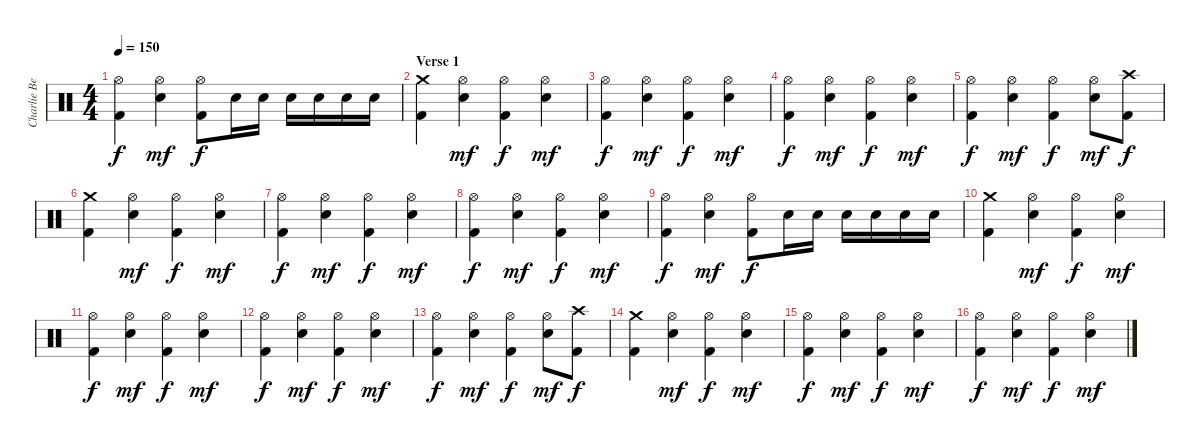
\track ("Charlie Benante" "Charlie Be") {instrument percussion}
\staff {score}
\articulation defaults
\ts (4 4)
\tempo 150
\clef neutral
\ks c
("Kick (hit) 2" "Hi-Hat (open)").4{dy f} ("Hi-Hat (open)" "Snare (hit) 2").4{dy mf} ("Kick (hit) 2" "Hi-Hat (open)").8{dy f} "Snare (hit) 2".16 "Snare (hit) 2".16 "Snare (hit) 2".16 "Snare (hit) 2".16 "Snare (hit) 2".16 "Snare (hit) 2".16 |
\section ("" "Verse 1")
("Kick (hit) 2" "Crash medium (hit)").4 ("Hi-Hat (open)" "Snare (hit) 2").4{dy mf} ("Kick (hit) 2" "Hi-Hat (open)").4{dy f} ("Hi-Hat (open)" "Snare (hit) 2").4{dy mf} |
("Kick (hit) 2" "Hi-Hat (open)").4{dy f} ("Hi-Hat (open)" "Snare (hit) 2").4{dy mf} ("Kick (hit) 2" "Hi-Hat (open)").4{dy f} ("Hi-Hat (open)" "Snare (hit) 2").4{dy mf} |
("Kick (hit) 2" "Hi-Hat (open)").4{dy f} ("Hi-Hat (open)" "Snare (hit) 2").4{dy mf} ("Kick (hit) 2" "Hi-Hat (open)").4{dy f} ("Hi-Hat (open)" "Snare (hit) 2").4{dy mf} |
("Kick (hit) 2" "Hi-Hat (open)").4{dy f} ("Hi-Hat (open)" "Snare (hit) 2").4{dy mf} ("Kick (hit) 2" "Hi-Hat (open)").4{dy f} ("Hi-Hat (open)" "Snare (hit) 2").8{dy mf} ("Kick (hit) 2" "Crash high (hit)").8{dy f} |
("Kick (hit) 2" "Crash medium (hit)").4 ("Hi-Hat (open)" "Snare (hit) 2").4{dy mf} ("Kick (hit) 2" "Hi-Hat (open)").4{dy f} ("Hi-Hat (open)" "Snare (hit) 2").4{dy mf} |
("Kick (hit) 2" "Hi-Hat (open)").4{dy f} ("Hi-Hat (open)" "Snare (hit) 2").4{dy mf} ("Kick (hit) 2" "Hi-Hat (open)").4{dy f} ("Hi-Hat (open)" "Snare (hit) 2").4{dy mf} |
("Kick (hit) 2" "Hi-Hat (open)").4{dy f} ("Hi-Hat (open)" "Snare (hit) 2").4{dy mf} ("Kick (hit) 2" "Hi-Hat (open)").4{dy f} ("Hi-Hat (open)" "Snare (hit) 2").4{dy mf} |
("Kick (hit) 2" "Hi-Hat (open)").4{dy f} ("Hi-Hat (open)" "Snare (hit) 2").4{dy mf} ("Kick (hit) 2" "Hi-Hat (open)").8{dy f} "Snare (hit) 2".16 "Snare (hit) 2".16 "Snare (hit) 2".16 "Snare (hit) 2".16 "Snare (hit) 2".16 "Snare (hit) 2".16 |
("Kick (hit) 2" "Crash medium (hit)").4 ("Hi-Hat (open)" "Snare (hit) 2").4{dy mf} ("Kick (hit) 2" "Hi-Hat (open)").4{dy f} ("Hi-Hat (open)" "Snare (hit) 2").4{dy mf} |
("Kick (hit) 2" "Hi-Hat (open)").4{dy f} ("Hi-Hat (open)" "Snare (hit) 2").4{dy mf} ("Kick (hit) 2" "Hi-Hat (open)").4{dy f} ("Hi-Hat (open)" "Snare (hit) 2").4{dy mf} |
("Kick (hit) 2" "Hi-Hat (open)").4{dy f} ("Hi-Hat (open)" "Snare (hit) 2").4{dy mf} ("Kick (hit) 2" "Hi-Hat (open)").4{dy f} ("Hi-Hat (open)" "Snare (hit) 2").4{dy mf} |
("Kick (hit) 2" "Hi-Hat (open)").4{dy f} ("Hi-Hat (open)" "Snare (hit) 2").4{dy mf} ("Kick (hit) 2" "Hi-Hat (open)").4{dy f} ("Hi-Hat (open)" "Snare (hit) 2").8{dy mf} ("Kick (hit) 2" "Crash high (hit)").8{dy f} |
("Kick (hit) 2" "Crash medium (hit)").4 ("Hi-Hat (open)" "Snare (hit) 2").4{dy mf} ("Kick (hit) 2" "Hi-Hat (open)").4{dy f} ("Hi-Hat (open)" "Snare (hit) 2").4{dy mf} |
("Kick (hit) 2" "Hi-Hat (open)").4{dy f} ("Hi-Hat (open)" "Snare (hit) 2").4{dy mf} ("Kick (hit) 2" "Hi-Hat (open)").4{dy f} ("Hi-Hat (open)" "Snare (hit) 2").4{dy mf} |
("Kick (hit) 2" "Hi-Hat (open)").4{dy f} ("Hi-Hat (open)" "Snare (hit) 2").4{dy mf} ("Kick (hit) 2" "Hi-Hat (open)").4{dy f} ("Hi-Hat (open)" "Snare (hit) 2").4{dy mf}
